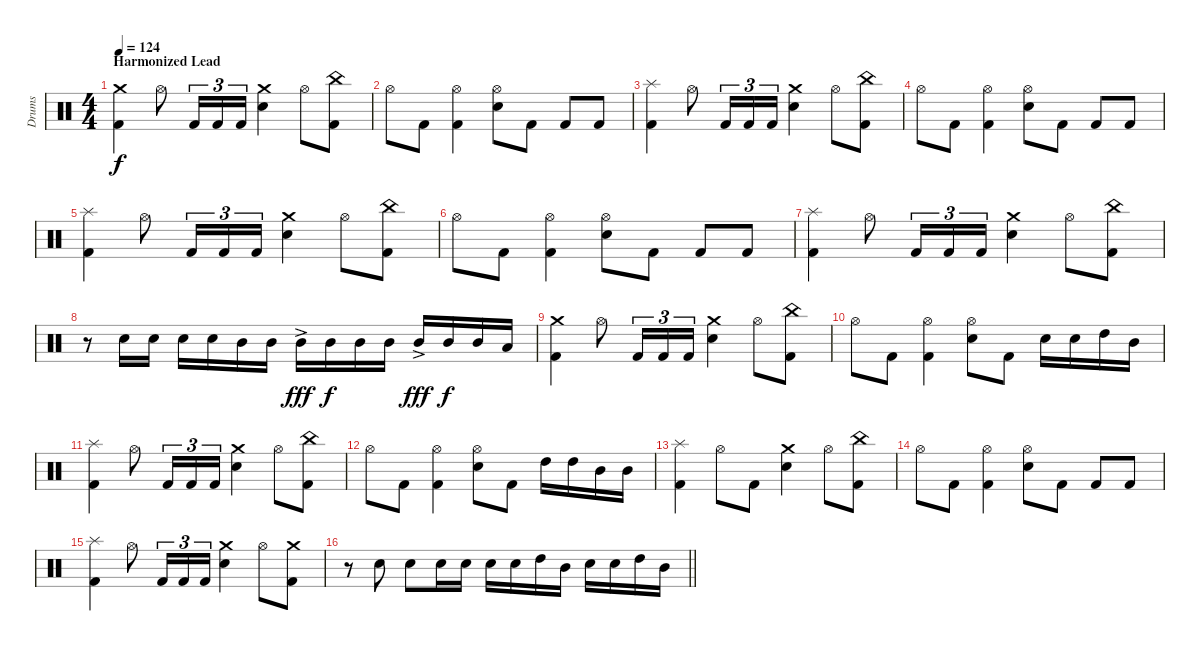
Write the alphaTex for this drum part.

\track ("Drums" "Drums") {instrument percussion}
\staff {score}
\articulation defaults
\ts (4 4)
\section ("" "Harmonized Lead")
\tempo 124
\clef neutral
\ks c
("Crash medium (hit)" "Kick (hit) 2").4{dy f} "Hi-Hat (open)".8 "Kick (hit) 2".16{tu (3 2)} "Kick (hit) 2".16{tu (3 2)} "Kick (hit) 2".16{tu (3 2)} ("Crash medium (hit)" "Electric Snare (hit)").4 "Hi-Hat (open)".8 ("China (hit)" "Kick (hit) 2").8 |
"Hi-Hat (open)".8 "Kick (hit) 2".8 ("Hi-Hat (open)" "Kick (hit) 2").4 ("Hi-Hat (open)" "Electric Snare (hit)").8 "Kick (hit) 2".8 "Kick (hit) 2".8 "Kick (hit) 2".8 |
("Splash (hit)" "Kick (hit) 2").4 "Hi-Hat (open)".8 "Kick (hit) 2".16{tu (3 2)} "Kick (hit) 2".16{tu (3 2)} "Kick (hit) 2".16{tu (3 2)} ("Crash medium (hit)" "Electric Snare (hit)").4 "Hi-Hat (open)".8 ("China (hit)" "Kick (hit) 2").8 |
"Hi-Hat (open)".8 "Kick (hit) 2".8 ("Hi-Hat (open)" "Kick (hit) 2").4 ("Hi-Hat (open)" "Electric Snare (hit)").8 "Kick (hit) 2".8 "Kick (hit) 2".8 "Kick (hit) 2".8 |
("Splash (hit)" "Kick (hit) 2").4 "Hi-Hat (open)".8 "Kick (hit) 2".16{tu (3 2)} "Kick (hit) 2".16{tu (3 2)} "Kick (hit) 2".16{tu (3 2)} ("Crash medium (hit)" "Electric Snare (hit)").4 "Hi-Hat (open)".8 ("China (hit)" "Kick (hit) 2").8 |
"Hi-Hat (open)".8 "Kick (hit) 2".8 ("Hi-Hat (open)" "Kick (hit) 2").4 ("Hi-Hat (open)" "Electric Snare (hit)").8 "Kick (hit) 2".8 "Kick (hit) 2".8 "Kick (hit) 2".8 |
("Splash (hit)" "Kick (hit) 2").4 "Hi-Hat (open)".8 "Kick (hit) 2".16{tu (3 2)} "Kick (hit) 2".16{tu (3 2)} "Kick (hit) 2".16{tu (3 2)} ("Crash medium (hit)" "Electric Snare (hit)").4 "Hi-Hat (open)".8 ("China (hit)" "Kick (hit) 2").8 |
r.8 "Electric Snare (hit)".16 "Electric Snare (hit)".16 "Electric Snare (hit)".16 "Electric Snare (hit)".16 "Mid Tom (hit)".16 "Mid Tom (hit)".16 "Mid Tom (hit)"{ac}.16{dy fff} "Mid Tom (hit)".16{dy f} "Mid Tom (hit)".16 "Mid Tom (hit)".16 "Mid Tom (hit)"{ac}.16{dy fff} "Mid Tom (hit)".16{dy f} "Mid Tom (hit)".16 "Low Tom (hit)".16 |
("Crash medium (hit)" "Kick (hit) 2").4 "Hi-Hat (open)".8 "Kick (hit) 2".16{tu (3 2)} "Kick (hit) 2".16{tu (3 2)} "Kick (hit) 2".16{tu (3 2)} ("Crash medium (hit)" "Electric Snare (hit)").4 "Hi-Hat (open)".8 ("China (hit)" "Kick (hit) 2").8 |
"Hi-Hat (open)".8 "Kick (hit) 2".8 ("Hi-Hat (open)" "Kick (hit) 2").4 ("Hi-Hat (open)" "Electric Snare (hit)").8 "Kick (hit) 2".8 "Electric Snare (hit)".16 "Electric Snare (hit)".16 "High Tom (hit)".16 "Mid Tom (hit)".16 |
("Splash (hit)" "Kick (hit) 2").4 "Hi-Hat (open)".8 "Kick (hit) 2".16{tu (3 2)} "Kick (hit) 2".16{tu (3 2)} "Kick (hit) 2".16{tu (3 2)} ("Crash medium (hit)" "Electric Snare (hit)").4 "Hi-Hat (open)".8 ("China (hit)" "Kick (hit) 2").8 |
"Hi-Hat (open)".8 "Kick (hit) 2".8 ("Hi-Hat (open)" "Kick (hit) 2").4 ("Hi-Hat (open)" "Electric Snare (hit)").8 "Kick (hit) 2".8 "High Tom (hit)".16 "High Tom (hit)".16 "Mid Tom (hit)".16 "Mid Tom (hit)".16 |
("Splash (hit)" "Kick (hit) 2").4 "Hi-Hat (open)".8 "Kick (hit) 2".8 ("Crash medium (hit)" "Electric Snare (hit)").4 "Hi-Hat (open)".8 ("China (hit)" "Kick (hit) 2").8 |
"Hi-Hat (open)".8 "Kick (hit) 2".8 ("Hi-Hat (open)" "Kick (hit) 2").4 ("Hi-Hat (open)" "Electric Snare (hit)").8 "Kick (hit) 2".8 "Kick (hit) 2".8 "Kick (hit) 2".8 |
("Splash (hit)" "Kick (hit) 2").4 "Hi-Hat (open)".8 "Kick (hit) 2".16{tu (3 2)} "Kick (hit) 2".16{tu (3 2)} "Kick (hit) 2".16{tu (3 2)} ("Crash medium (hit)" "Electric Snare (hit)").4 "Hi-Hat (open)".8 ("Crash medium (hit)" "Kick (hit) 2").8 |
\barLineRight lightlight
r.8 "Electric Snare (hit)".8 "Electric Snare (hit)".8 "Electric Snare (hit)".16 "Electric Snare (hit)".16 "Electric Snare (hit)".16 "Electric Snare (hit)".16 "High Tom (hit)".16 "Mid Tom (hit)".16 "Electric Snare (hit)".16 "Electric Snare (hit)".16 "High Tom (hit)".16 "Mid Tom (hit)".16
